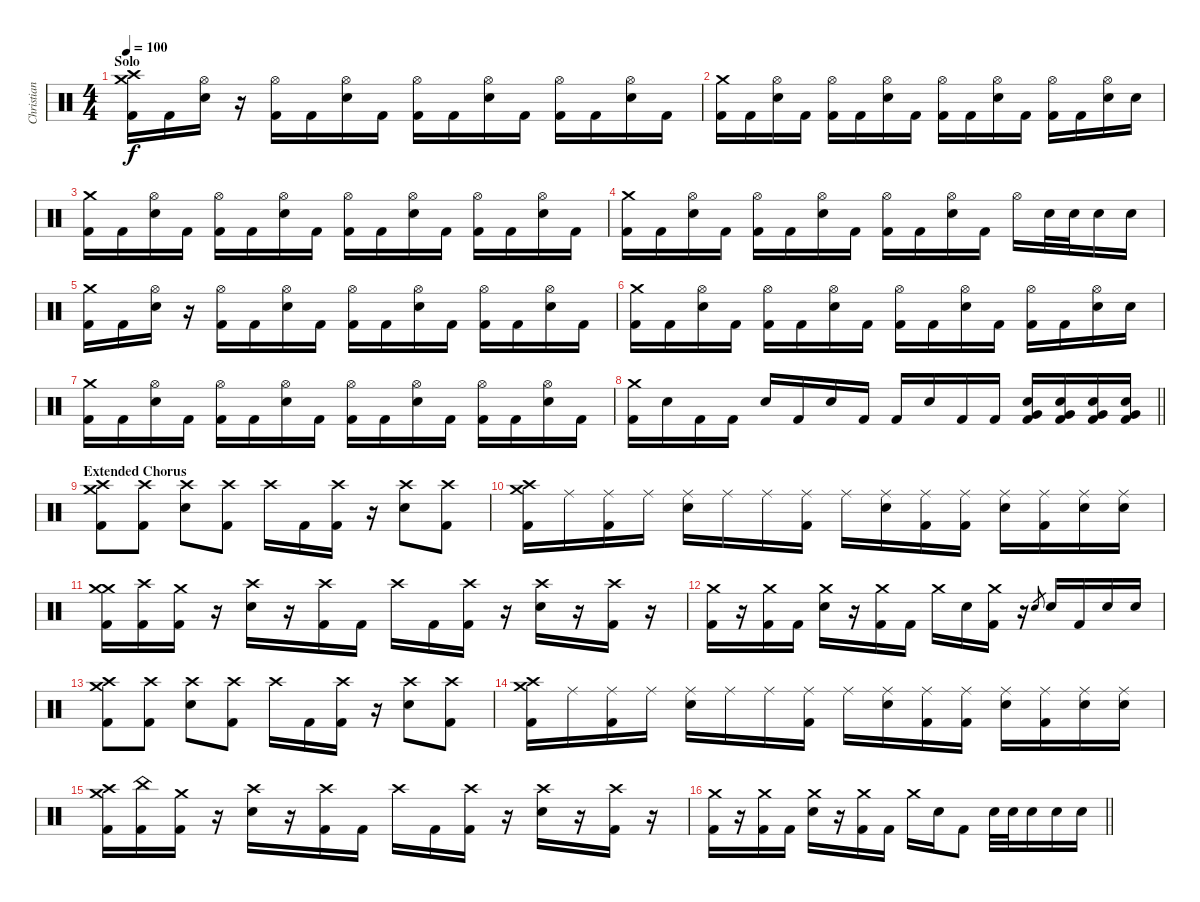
\track ("Christian 'CC' Coma" "Christian ") {instrument percussion}
\staff {score}
\articulation defaults
\ts (4 4)
\section ("" "Solo")
\tempo 100
\clef neutral
\ks c
("Crash medium (hit)" "Crash high (hit)" "Kick (hit) 2").16{dy f} "Kick (hit) 2".16 ("Hi-Hat (open)" "Electric Snare (hit)").16 r.16 ("Hi-Hat (open)" "Kick (hit) 2").16 "Kick (hit) 2".16 ("Hi-Hat (open)" "Electric Snare (hit)").16 "Kick (hit) 2".16 ("Hi-Hat (open)" "Kick (hit) 2").16 "Kick (hit) 2".16 ("Hi-Hat (open)" "Electric Snare (hit)").16 "Kick (hit) 2".16 ("Hi-Hat (open)" "Kick (hit) 2").16 "Kick (hit) 2".16 ("Hi-Hat (open)" "Electric Snare (hit)").16 "Kick (hit) 2".16 |
("Crash medium (hit)" "Kick (hit) 2").16 "Kick (hit) 2".16 ("Hi-Hat (open)" "Electric Snare (hit)").16 "Kick (hit) 2".16 ("Hi-Hat (open)" "Kick (hit) 2").16 "Kick (hit) 2".16 ("Hi-Hat (open)" "Electric Snare (hit)").16 "Kick (hit) 2".16 ("Hi-Hat (open)" "Kick (hit) 2").16 "Kick (hit) 2".16 ("Hi-Hat (open)" "Electric Snare (hit)").16 "Kick (hit) 2".16 ("Hi-Hat (open)" "Kick (hit) 2").16 "Kick (hit) 2".16 ("Hi-Hat (open)" "Electric Snare (hit)").16 "Electric Snare (hit)".16 |
("Crash medium (hit)" "Kick (hit) 2").16 "Kick (hit) 2".16 ("Hi-Hat (open)" "Electric Snare (hit)").16 "Kick (hit) 2".16 ("Hi-Hat (open)" "Kick (hit) 2").16 "Kick (hit) 2".16 ("Hi-Hat (open)" "Electric Snare (hit)").16 "Kick (hit) 2".16 ("Hi-Hat (open)" "Kick (hit) 2").16 "Kick (hit) 2".16 ("Hi-Hat (open)" "Electric Snare (hit)").16 "Kick (hit) 2".16 ("Hi-Hat (open)" "Kick (hit) 2").16 "Kick (hit) 2".16 ("Hi-Hat (open)" "Electric Snare (hit)").16 "Kick (hit) 2".16 |
("Crash medium (hit)" "Kick (hit) 2").16 "Kick (hit) 2".16 ("Hi-Hat (open)" "Electric Snare (hit)").16 "Kick (hit) 2".16 ("Hi-Hat (open)" "Kick (hit) 2").16 "Kick (hit) 2".16 ("Hi-Hat (open)" "Electric Snare (hit)").16 "Kick (hit) 2".16 ("Hi-Hat (open)" "Kick (hit) 2").16 "Kick (hit) 2".16 ("Hi-Hat (open)" "Electric Snare (hit)").16 "Kick (hit) 2".16 "Hi-Hat (open)".16 "Electric Snare (hit)".32 "Electric Snare (hit)".32 "Electric Snare (hit)".16 "Electric Snare (hit)".16 |
("Crash medium (hit)" "Kick (hit) 2").16 "Kick (hit) 2".16 ("Hi-Hat (open)" "Electric Snare (hit)").16 r.16 ("Hi-Hat (open)" "Kick (hit) 2").16 "Kick (hit) 2".16 ("Hi-Hat (open)" "Electric Snare (hit)").16 "Kick (hit) 2".16 ("Hi-Hat (open)" "Kick (hit) 2").16 "Kick (hit) 2".16 ("Hi-Hat (open)" "Electric Snare (hit)").16 "Kick (hit) 2".16 ("Hi-Hat (open)" "Kick (hit) 2").16 "Kick (hit) 2".16 ("Hi-Hat (open)" "Electric Snare (hit)").16 "Kick (hit) 2".16 |
("Crash medium (hit)" "Kick (hit) 2").16 "Kick (hit) 2".16 ("Hi-Hat (open)" "Electric Snare (hit)").16 "Kick (hit) 2".16 ("Hi-Hat (open)" "Kick (hit) 2").16 "Kick (hit) 2".16 ("Hi-Hat (open)" "Electric Snare (hit)").16 "Kick (hit) 2".16 ("Hi-Hat (open)" "Kick (hit) 2").16 "Kick (hit) 2".16 ("Hi-Hat (open)" "Electric Snare (hit)").16 "Kick (hit) 2".16 ("Hi-Hat (open)" "Kick (hit) 2").16 "Kick (hit) 2".16 ("Hi-Hat (open)" "Electric Snare (hit)").16 "Electric Snare (hit)".16 |
("Crash medium (hit)" "Kick (hit) 2").16 "Kick (hit) 2".16 ("Hi-Hat (open)" "Electric Snare (hit)").16 "Kick (hit) 2".16 ("Hi-Hat (open)" "Kick (hit) 2").16 "Kick (hit) 2".16 ("Hi-Hat (open)" "Electric Snare (hit)").16 "Kick (hit) 2".16 ("Hi-Hat (open)" "Kick (hit) 2").16 "Kick (hit) 2".16 ("Hi-Hat (open)" "Electric Snare (hit)").16 "Kick (hit) 2".16 ("Hi-Hat (open)" "Kick (hit) 2").16 "Kick (hit) 2".16 ("Hi-Hat (open)" "Electric Snare (hit)").16 "Kick (hit) 2".16 |
\barLineRight lightlight
("Crash medium (hit)" "Kick (hit) 2").16 "Electric Snare (hit)".16 "Kick (hit) 2".16 "Kick (hit) 2".16 "Electric Snare (hit)".16 "Kick (hit) 2".16 "Electric Snare (hit)".16 "Kick (hit) 2".16 "Kick (hit) 2".16 "Electric Snare (hit)".16 "Kick (hit) 2".16 "Kick (hit) 2".16 ("Very Low Tom (hit)" "Electric Snare (hit)" "Kick (hit) 2").16 ("Very Low Tom (hit)" "Electric Snare (hit)" "Kick (hit) 2").16 ("Very Low Tom (hit)" "Electric Snare (hit)" "Kick (hit) 2").16 ("Very Low Tom (hit)" "Electric Snare (hit)" "Kick (hit) 2").16 |
\section ("" "Extended Chorus")
("Crash high (hit)" "Crash medium (hit)" "Kick (hit) 2").8 ("Crash high (hit)" "Kick (hit) 2").8 ("Crash high (hit)" "Electric Snare (hit)").8 ("Crash high (hit)" "Kick (hit) 2").8 "Crash high (hit)".16 "Kick (hit) 2".16 ("Crash high (hit)" "Kick (hit) 2").16 r.16 ("Crash high (hit)" "Electric Snare (hit)").8 ("Crash high (hit)" "Kick (hit) 2").8 |
("Crash medium (hit)" "Crash high (hit)" "Kick (hit) 2").16 "Ride (middle)".16 ("Ride (middle)" "Kick (hit) 2").16 "Ride (middle)".16 ("Ride (middle)" "Electric Snare (hit)").16 "Ride (middle)".16 "Ride (middle)".16 ("Ride (middle)" "Kick (hit) 2").16 "Ride (middle)".16 ("Ride (middle)" "Electric Snare (hit)").16 ("Ride (middle)" "Kick (hit) 2").16 ("Ride (middle)" "Kick (hit) 2").16 ("Ride (middle)" "Electric Snare (hit)").16 ("Ride (middle)" "Kick (hit) 2").16 ("Ride (middle)" "Electric Snare (hit)").16 ("Ride (middle)" "Electric Snare (hit)").16 |
("Crash medium (hit)" "Crash medium (hit)" "Kick (hit) 2").16 ("Crash high (hit)" "Kick (hit) 2").16 ("Crash medium (hit)" "Kick (hit) 2").16 r.16 ("Crash high (hit)" "Electric Snare (hit)").16 r.16 ("Crash high (hit)" "Kick (hit) 2").16 "Kick (hit) 2".16 "Crash high (hit)".16 "Kick (hit) 2".16 ("Crash high (hit)" "Kick (hit) 2").16 r.16 ("Crash high (hit)" "Electric Snare (hit)").16 r.16 ("Crash high (hit)" "Kick (hit) 2").16 r.16 |
("Crash medium (hit)" "Kick (hit) 2").16 r.16 ("Crash medium (hit)" "Kick (hit) 2").16 "Kick (hit) 2".16 ("Crash medium (hit)" "Electric Snare (hit)").16 r.16 ("Crash medium (hit)" "Kick (hit) 2").16 "Kick (hit) 2".16 "Crash medium (hit)".16 "Electric Snare (hit)".16 ("Crash medium (hit)" "Kick (hit) 2").16 r.16 "Electric Snare (hit)".8{gr} "Electric Snare (hit)".16 "Kick (hit) 2".16 "Electric Snare (hit)".16 "Electric Snare (hit)".16 |
("Crash high (hit)" "Crash medium (hit)" "Kick (hit) 2").8 ("Crash high (hit)" "Kick (hit) 2").8 ("Crash high (hit)" "Electric Snare (hit)").8 ("Crash high (hit)" "Kick (hit) 2").8 "Crash high (hit)".16 "Kick (hit) 2".16 ("Crash high (hit)" "Kick (hit) 2").16 r.16 ("Crash high (hit)" "Electric Snare (hit)").8 ("Crash high (hit)" "Kick (hit) 2").8 |
("Crash medium (hit)" "Crash high (hit)" "Kick (hit) 2").16 "Ride (middle)".16 ("Ride (middle)" "Kick (hit) 2").16 "Ride (middle)".16 ("Ride (middle)" "Electric Snare (hit)").16 "Ride (middle)".16 "Ride (middle)".16 ("Ride (middle)" "Kick (hit) 2").16 "Ride (middle)".16 ("Ride (middle)" "Electric Snare (hit)").16 ("Ride (middle)" "Kick (hit) 2").16 ("Ride (middle)" "Kick (hit) 2").16 ("Ride (middle)" "Electric Snare (hit)").16 ("Ride (middle)" "Kick (hit) 2").16 ("Ride (middle)" "Electric Snare (hit)").16 ("Ride (middle)" "Electric Snare (hit)").16 |
("Crash high (hit)" "Crash medium (hit)" "Kick (hit) 2").16 ("China (hit)" "Kick (hit) 2").16 ("Crash medium (hit)" "Kick (hit) 2").16 r.16 ("Crash high (hit)" "Electric Snare (hit)").16 r.16 ("Crash high (hit)" "Kick (hit) 2").16 "Kick (hit) 2".16 "Crash high (hit)".16 "Kick (hit) 2".16 ("Crash high (hit)" "Kick (hit) 2").16 r.16 ("Crash high (hit)" "Electric Snare (hit)").16 r.16 ("Crash high (hit)" "Kick (hit) 2").16 r.16 |
\barLineRight lightlight
("Crash medium (hit)" "Kick (hit) 2").16 r.16 ("Crash medium (hit)" "Kick (hit) 2").16 "Kick (hit) 2".16 ("Crash medium (hit)" "Electric Snare (hit)").16 r.16 ("Crash medium (hit)" "Kick (hit) 2").16 "Kick (hit) 2".16 "Crash medium (hit)".16 "Electric Snare (hit)".16 "Kick (hit) 2".8 "Electric Snare (hit)".32 "Electric Snare (hit)".32 "Electric Snare (hit)".16 "Electric Snare (hit)".16 "Electric Snare (hit)".16
